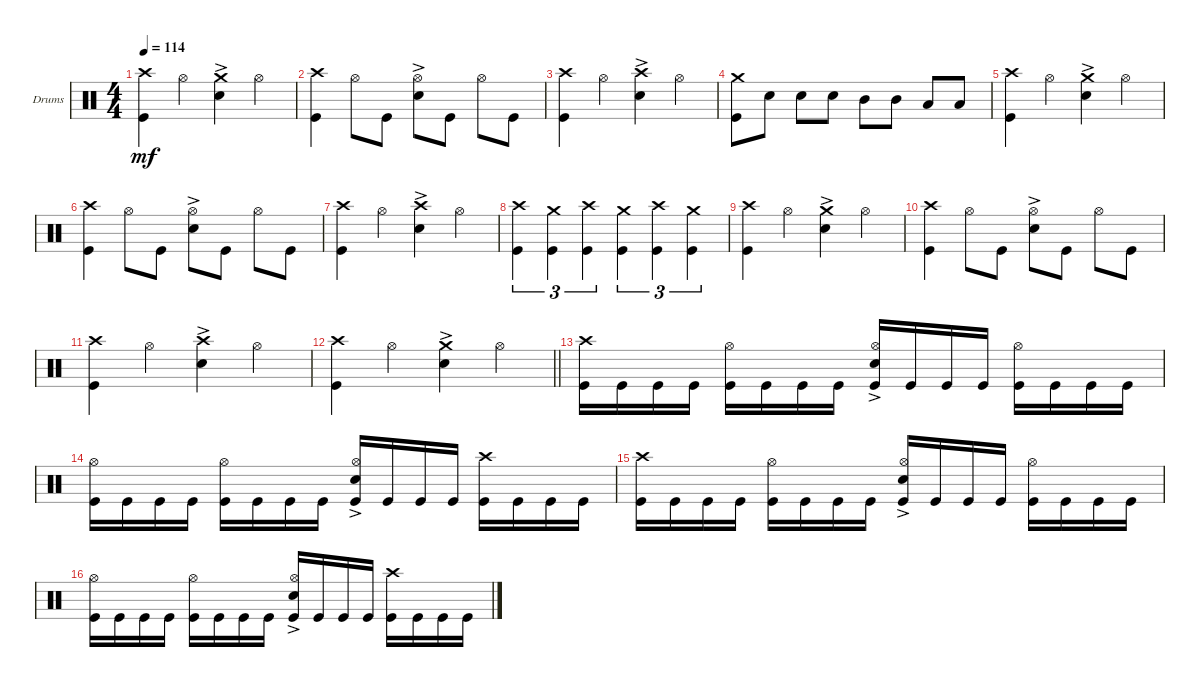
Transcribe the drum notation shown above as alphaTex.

\bracketExtendMode groupsimilarinstruments
\firstSystemTrackNameOrientation horizontal
\otherSystemsTrackNameOrientation horizontal
\track ("Drumkit" "Drums") {instrument percussion}
\staff {score}
\articulation defaults
\ts (4 4)
\tempo 114
\clef neutral
\ks c
("Kick (hit)" "Crash high (hit)").4{dy mf} "Hi-Hat (open)".4 ("Snare (hit) 2"{ac} "Crash medium (hit)").4 "Hi-Hat (open)".4 |
("Kick (hit)" "Crash high (hit)").4 "Hi-Hat (open)".8 "Kick (hit)".8 ("Snare (hit) 2"{ac} "Hi-Hat (open)").8 "Kick (hit)".8 "Hi-Hat (open)".8 "Kick (hit)".8 |
("Kick (hit)" "Crash high (hit)").4 "Hi-Hat (open)".4 ("Snare (hit) 2"{ac} "Crash high (hit)").4 "Hi-Hat (open)".4 |
("Crash medium (hit)" "Kick (hit)").8 "Snare (hit) 2".8 "Snare (hit) 2".8 "Snare (hit) 2".8 "Mid Tom (hit)".8 "Mid Tom (hit)".8 "Low Tom (hit)".8 "Low Tom (hit)".8 |
("Kick (hit)" "Crash high (hit)").4 "Hi-Hat (open)".4 ("Snare (hit) 2"{ac} "Crash medium (hit)").4 "Hi-Hat (open)".4 |
("Kick (hit)" "Crash high (hit)").4 "Hi-Hat (open)".8 "Kick (hit)".8 ("Snare (hit) 2"{ac} "Hi-Hat (open)").8 "Kick (hit)".8 "Hi-Hat (open)".8 "Kick (hit)".8 |
("Kick (hit)" "Crash high (hit)").4 "Hi-Hat (open)".4 ("Snare (hit) 2"{ac} "Crash high (hit)").4 "Hi-Hat (open)".4 |
("Kick (hit)" "Crash high (hit)").4{tu (3 2)} ("Kick (hit)" "Crash medium (hit)").4{tu (3 2)} ("Kick (hit)" "Crash high (hit)").4{tu (3 2)} ("Kick (hit)" "Crash medium (hit)").4{tu (3 2)} ("Kick (hit)" "Crash high (hit)").4{tu (3 2)} ("Kick (hit)" "Crash medium (hit)").4{tu (3 2)} |
("Kick (hit)" "Crash high (hit)").4 "Hi-Hat (open)".4 ("Snare (hit) 2"{ac} "Crash medium (hit)").4 "Hi-Hat (open)".4 |
("Kick (hit)" "Crash high (hit)").4 "Hi-Hat (open)".8 "Kick (hit)".8 ("Snare (hit) 2"{ac} "Hi-Hat (open)").8 "Kick (hit)".8 "Hi-Hat (open)".8 "Kick (hit)".8 |
("Kick (hit)" "Crash high (hit)").4 "Hi-Hat (open)".4 ("Snare (hit) 2"{ac} "Crash high (hit)").4 "Hi-Hat (open)".4 |
\barLineRight lightlight
("Kick (hit)" "Crash high (hit)").4 "Hi-Hat (open)".4 ("Snare (hit) 2"{ac} "Crash medium (hit)").4 "Hi-Hat (open)".4 |
("Kick (hit)" "Crash high (hit)").16 "Kick (hit)".16 "Kick (hit)".16 "Kick (hit)".16 ("Kick (hit)" "Hi-Hat (open)").16 "Kick (hit)".16 "Kick (hit)".16 "Kick (hit)".16 ("Kick (hit)" "Snare (hit) 2"{ac} "Hi-Hat (open)").16 "Kick (hit)".16 "Kick (hit)".16 "Kick (hit)".16 ("Kick (hit)" "Hi-Hat (open)").16 "Kick (hit)".16 "Kick (hit)".16 "Kick (hit)".16 |
("Kick (hit)" "Hi-Hat (open)").16 "Kick (hit)".16 "Kick (hit)".16 "Kick (hit)".16 ("Kick (hit)" "Hi-Hat (open)").16 "Kick (hit)".16 "Kick (hit)".16 "Kick (hit)".16 ("Kick (hit)" "Snare (hit) 2"{ac} "Hi-Hat (open)").16 "Kick (hit)".16 "Kick (hit)".16 "Kick (hit)".16 ("Kick (hit)" "Crash high (hit)").16 "Kick (hit)".16 "Kick (hit)".16 "Kick (hit)".16 |
("Kick (hit)" "Crash high (hit)").16 "Kick (hit)".16 "Kick (hit)".16 "Kick (hit)".16 ("Kick (hit)" "Hi-Hat (open)").16 "Kick (hit)".16 "Kick (hit)".16 "Kick (hit)".16 ("Kick (hit)" "Snare (hit) 2"{ac} "Hi-Hat (open)").16 "Kick (hit)".16 "Kick (hit)".16 "Kick (hit)".16 ("Kick (hit)" "Hi-Hat (open)").16 "Kick (hit)".16 "Kick (hit)".16 "Kick (hit)".16 |
("Kick (hit)" "Hi-Hat (open)").16 "Kick (hit)".16 "Kick (hit)".16 "Kick (hit)".16 ("Kick (hit)" "Hi-Hat (open)").16 "Kick (hit)".16 "Kick (hit)".16 "Kick (hit)".16 ("Kick (hit)" "Snare (hit) 2"{ac} "Hi-Hat (open)").16 "Kick (hit)".16 "Kick (hit)".16 "Kick (hit)".16 ("Kick (hit)" "Crash high (hit)").16 "Kick (hit)".16 "Kick (hit)".16 "Kick (hit)".16
